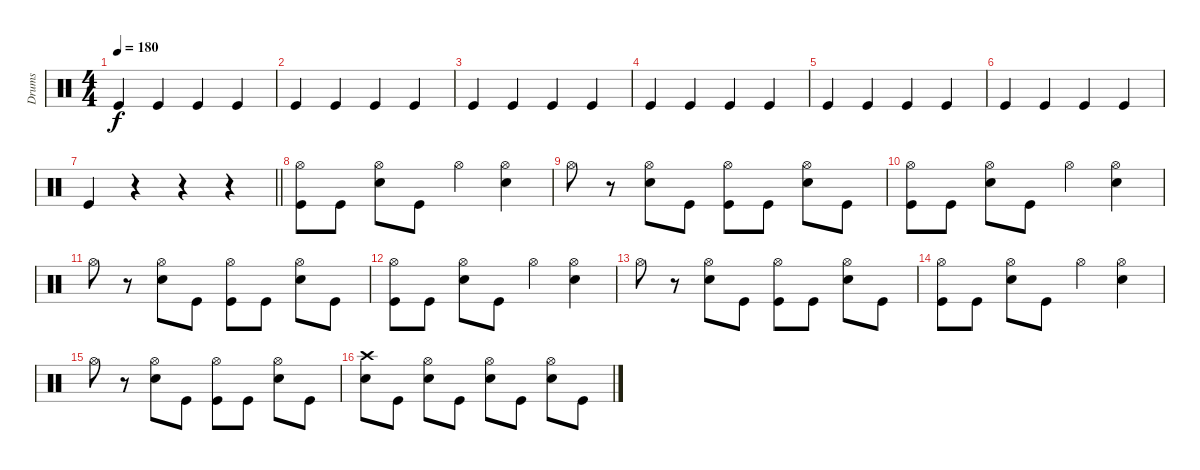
\track ("Drums" "Drums") {instrument percussion}
\staff {score}
\articulation defaults
\ts (4 4)
\tempo 180
\clef neutral
\ks c "Kick (hit)".4{dy f} "Kick (hit)".4 "Kick (hit)".4 "Kick (hit)".4
|
"Kick (hit)".4 "Kick (hit)".4 "Kick (hit)".4 "Kick (hit)".4 |
"Kick (hit)".4 "Kick (hit)".4 "Kick (hit)".4 "Kick (hit)".4 |
"Kick (hit)".4 "Kick (hit)".4 "Kick (hit)".4 "Kick (hit)".4 |
"Kick (hit)".4 "Kick (hit)".4 "Kick (hit)".4 "Kick (hit)".4 |
"Kick (hit)".4 "Kick (hit)".4 "Kick (hit)".4 "Kick (hit)".4 |
\barLineRight lightlight "Kick (hit)".4
r.4 r.4 r.4 |
\section ("" "")
("Hi-Hat (open)" "Kick (hit)").8 "Kick (hit)".8 ("Hi-Hat (open)" "Snare (hit) 2").8 "Kick (hit)".8 "Hi-Hat (open)".4 ("Hi-Hat (open)" "Snare (hit) 2").4 |
"Hi-Hat (open)".8 r.8 ("Hi-Hat (open)" "Snare (hit) 2").8 "Kick (hit)".8 ("Hi-Hat (open)" "Kick (hit)").8 "Kick (hit)".8 ("Hi-Hat (open)" "Snare (hit) 2").8 "Kick (hit)".8 |
("Hi-Hat (open)" "Kick (hit)").8 "Kick (hit)".8 ("Snare (hit) 2" "Hi-Hat (open)").8 "Kick (hit)".8 "Hi-Hat (open)".4 ("Hi-Hat (open)" "Snare (hit) 2").4 |
"Hi-Hat (open)".8 r.8 ("Hi-Hat (open)" "Snare (hit) 2").8 "Kick (hit)".8 ("Hi-Hat (open)" "Kick (hit)").8 "Kick (hit)".8 ("Hi-Hat (open)" "Snare (hit) 2").8 "Kick (hit)".8 |
("Hi-Hat (open)" "Kick (hit)").8 "Kick (hit)".8 ("Hi-Hat (open)" "Snare (hit) 2").8 "Kick (hit)".8 "Hi-Hat (open)".4 ("Hi-Hat (open)" "Snare (hit) 2").4 |
"Hi-Hat (open)".8 r.8 ("Hi-Hat (open)" "Snare (hit) 2").8 "Kick (hit)".8 ("Hi-Hat (open)" "Kick (hit)").8 "Kick (hit)".8 ("Hi-Hat (open)" "Snare (hit) 2").8 "Kick (hit)".8 |
("Hi-Hat (open)" "Kick (hit)").8 "Kick (hit)".8 ("Snare (hit) 2" "Hi-Hat (open)").8 "Kick (hit)".8 "Hi-Hat (open)".4 ("Hi-Hat (open)" "Snare (hit) 2").4 |
"Hi-Hat (open)".8 r.8 ("Hi-Hat (open)" "Snare (hit) 2").8 "Kick (hit)".8 ("Hi-Hat (open)" "Kick (hit)").8 "Kick (hit)".8 ("Hi-Hat (open)" "Snare (hit) 2").8 "Kick (hit)".8 |
("Snare (hit) 2" "Crash high (hit)").8 "Kick (hit)".8 ("Hi-Hat (open)" "Snare (hit) 2").8 "Kick (hit)".8 ("Hi-Hat (open)" "Snare (hit) 2").8 "Kick (hit)".8 ("Hi-Hat (open)" "Snare (hit) 2").8 "Kick (hit)".8
